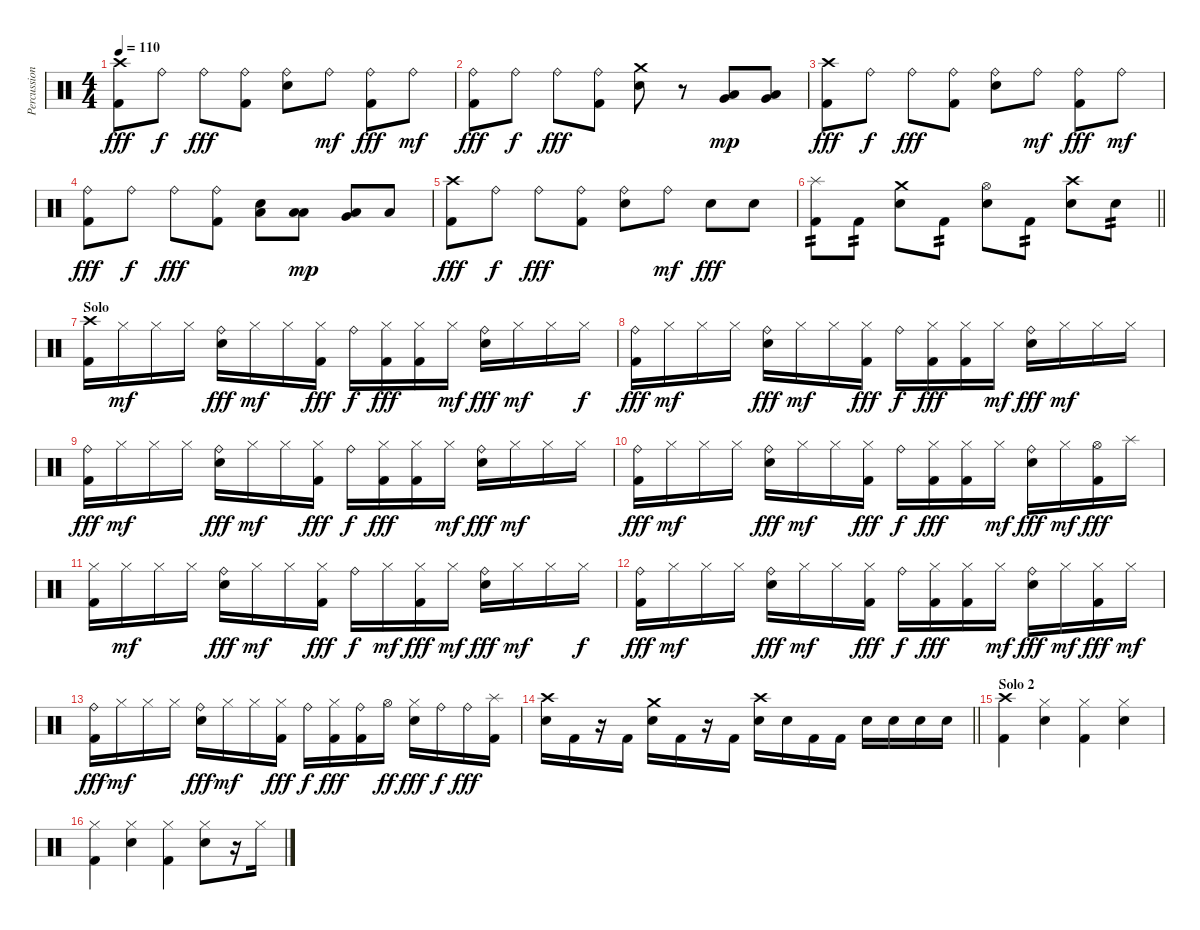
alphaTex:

\track ("Percussion" "Percussion") {instrument percussion}
\staff {score}
\articulation defaults
\ts (4 4)
\tempo 110
\clef neutral
\ks c
("Crash high (hit)" "Kick (hit) 2").8{dy fff} "Ride (bell)".8{dy f} "Ride (bell)".8{dy fff} ("Ride (bell)" "Kick (hit) 2").8 ("Ride (bell)" "Electric Snare (hit)").8 "Ride (bell)".8{dy mf} ("Ride (bell)" "Kick (hit) 2").8{dy fff} "Ride (bell)".8{dy mf} |
("Ride (bell)" "Kick (hit) 2").8{dy fff} "Ride (bell)".8{dy f} "Ride (bell)".8{dy fff} ("Ride (bell)" "Kick (hit) 2").8 ("Crash medium (hit)" "Electric Snare (hit)").8 r.8 ("Low Floor Tom (hit)" "Very Low Tom (hit)").8{dy mp} ("Low Floor Tom (hit)" "Very Low Tom (hit)").8 |
("Crash high (hit)" "Kick (hit) 2").8{dy fff} "Ride (bell)".8{dy f} "Ride (bell)".8{dy fff} ("Ride (bell)" "Kick (hit) 2").8 ("Ride (bell)" "Electric Snare (hit)").8 "Ride (bell)".8{dy mf} ("Ride (bell)" "Kick (hit) 2").8{dy fff} "Ride (bell)".8{dy mf} |
("Ride (bell)" "Kick (hit) 2").8{dy fff} "Ride (bell)".8{dy f} "Ride (bell)".8{dy fff} ("Ride (bell)" "Kick (hit) 2").8 ("Low Floor Tom (hit)" "Electric Snare (hit)").8 ("Low Floor Tom (hit)" "Low Tom (hit)").8{dy mp} ("Low Floor Tom (hit)" "Very Low Tom (hit)").8 "Low Floor Tom (hit)".8 |
("Crash high (hit)" "Kick (hit) 2").8{dy fff} "Ride (bell)".8{dy f} "Ride (bell)".8{dy fff} ("Ride (bell)" "Kick (hit) 2").8 ("Ride (bell)" "Electric Snare (hit)").8 "Ride (bell)".8{dy mf} "Electric Snare (hit)".8{dy fff} "Electric Snare (hit)".8 |
\barLineRight lightlight
("Splash (hit)" "Kick (hit) 2").8{tp 2} "Kick (hit) 2".8{tp 2} ("Crash medium (hit)" "Electric Snare (hit)").8 "Kick (hit) 2".8{tp 2} ("Hi-Hat (open)" "Electric Snare (hit)").8 "Kick (hit) 2".8{tp 2} ("Crash high (hit)" "Electric Snare (hit)").8 "Electric Snare (hit)".8{tp 2} |
\section ("" "Solo")
("Crash high (hit)" "Kick (hit) 2").16 "Hi-Hat (closed)".16{dy mf} "Hi-Hat (closed)".16 "Hi-Hat (closed)".16 ("Ride (bell)" "Electric Snare (hit)").16{dy fff} "Hi-Hat (closed)".16{dy mf} "Hi-Hat (closed)".16 ("Hi-Hat (closed)" "Kick (hit) 2").16{dy fff} "Ride (bell)".16{dy f} ("Hi-Hat (closed)" "Kick (hit) 2").16{dy fff} ("Hi-Hat (closed)" "Kick (hit) 2").16 "Hi-Hat (closed)".16{dy mf} ("Ride (bell)" "Electric Snare (hit)").16{dy fff} "Hi-Hat (closed)".16{dy mf} "Hi-Hat (closed)".16 "Hi-Hat (closed)".16{dy f} |
("Ride (bell)" "Kick (hit) 2").16{dy fff} "Hi-Hat (closed)".16{dy mf} "Hi-Hat (closed)".16 "Hi-Hat (closed)".16 ("Ride (bell)" "Electric Snare (hit)").16{dy fff} "Hi-Hat (closed)".16{dy mf} "Hi-Hat (closed)".16 ("Hi-Hat (closed)" "Kick (hit) 2").16{dy fff} "Ride (bell)".16{dy f} ("Hi-Hat (closed)" "Kick (hit) 2").16{dy fff} ("Hi-Hat (closed)" "Kick (hit) 2").16 "Hi-Hat (closed)".16{dy mf} ("Ride (bell)" "Electric Snare (hit)").16{dy fff} "Hi-Hat (closed)".16{dy mf} "Hi-Hat (closed)".16 "Hi-Hat (closed)".16 |
("Ride (bell)" "Kick (hit) 2").16{dy fff} "Hi-Hat (closed)".16{dy mf} "Hi-Hat (closed)".16 "Hi-Hat (closed)".16 ("Ride (bell)" "Electric Snare (hit)").16{dy fff} "Hi-Hat (closed)".16{dy mf} "Hi-Hat (closed)".16 ("Hi-Hat (closed)" "Kick (hit) 2").16{dy fff} "Ride (bell)".16{dy f} ("Hi-Hat (closed)" "Kick (hit) 2").16{dy fff} ("Hi-Hat (closed)" "Kick (hit) 2").16 "Hi-Hat (closed)".16{dy mf} ("Ride (bell)" "Electric Snare (hit)").16{dy fff} "Hi-Hat (closed)".16{dy mf} "Hi-Hat (closed)".16 "Hi-Hat (closed)".16 |
("Ride (bell)" "Kick (hit) 2").16{dy fff} "Hi-Hat (closed)".16{dy mf} "Hi-Hat (closed)".16 "Hi-Hat (closed)".16 ("Ride (bell)" "Electric Snare (hit)").16{dy fff} "Hi-Hat (closed)".16{dy mf} "Hi-Hat (closed)".16 ("Hi-Hat (closed)" "Kick (hit) 2").16{dy fff} "Ride (bell)".16{dy f} ("Hi-Hat (closed)" "Kick (hit) 2").16{dy fff} ("Hi-Hat (closed)" "Kick (hit) 2").16 "Hi-Hat (closed)".16{dy mf} ("Ride (bell)" "Electric Snare (hit)").16{dy fff} "Hi-Hat (closed)".16{dy mf} ("Hi-Hat (open)" "Kick (hit) 2").16{dy fff} "Splash (hit)".16 |
("Hi-Hat (closed)" "Kick (hit) 2").16 "Hi-Hat (closed)".16{dy mf} "Hi-Hat (closed)".16 "Hi-Hat (closed)".16 ("Ride (bell)" "Electric Snare (hit)").16{dy fff} "Hi-Hat (closed)".16{dy mf} "Hi-Hat (closed)".16 ("Hi-Hat (closed)" "Kick (hit) 2").16{dy fff} "Ride (bell)".16{dy f} "Hi-Hat (closed)".16{dy mf} ("Hi-Hat (closed)" "Kick (hit) 2").16{dy fff} "Hi-Hat (closed)".16{dy mf} ("Ride (bell)" "Electric Snare (hit)").16{dy fff} "Hi-Hat (closed)".16{dy mf} "Hi-Hat (closed)".16 "Hi-Hat (closed)".16{dy f} |
("Ride (bell)" "Kick (hit) 2").16{dy fff} "Hi-Hat (closed)".16{dy mf} "Hi-Hat (closed)".16 "Hi-Hat (closed)".16 ("Ride (bell)" "Electric Snare (hit)").16{dy fff} "Hi-Hat (closed)".16{dy mf} "Hi-Hat (closed)".16 ("Hi-Hat (closed)" "Kick (hit) 2").16{dy fff} "Ride (bell)".16{dy f} ("Hi-Hat (closed)" "Kick (hit) 2").16{dy fff} ("Hi-Hat (closed)" "Kick (hit) 2").16 "Hi-Hat (closed)".16{dy mf} ("Ride (bell)" "Electric Snare (hit)").16{dy fff} "Hi-Hat (closed)".16{dy mf} ("Hi-Hat (closed)" "Kick (hit) 2").16{dy fff} "Hi-Hat (closed)".16{dy mf} |
("Ride (bell)" "Kick (hit) 2").16{dy fff} "Hi-Hat (closed)".16{dy mf} "Hi-Hat (closed)".16 "Hi-Hat (closed)".16 ("Ride (bell)" "Electric Snare (hit)").16{dy fff} "Hi-Hat (closed)".16{dy mf} "Hi-Hat (closed)".16 ("Hi-Hat (closed)" "Kick (hit) 2").16{dy fff} "Ride (bell)".16{dy f} ("Hi-Hat (closed)" "Kick (hit) 2").16{dy fff} ("Ride (bell)" "Kick (hit) 2").16 "Hi-Hat (open)".16{dy ff} ("Hi-Hat (closed)" "Electric Snare (hit)").16{dy fff} "Ride (bell)".16{dy f} "Ride (bell)".16{dy fff} ("Splash (hit)" "Kick (hit) 2").16 |
\barLineRight lightlight
("Crash high (hit)" "Electric Snare (hit)").16 "Kick (hit) 2".16 r.16 "Kick (hit) 2".16 ("Crash medium (hit)" "Electric Snare (hit)").16 "Kick (hit) 2".16 r.16 "Kick (hit) 2".16 ("Crash high (hit)" "Electric Snare (hit)").16 "Electric Snare (hit)".16 "Kick (hit) 2".16 "Kick (hit) 2".16 "Electric Snare (hit)".16 "Electric Snare (hit)".16 "Electric Snare (hit)".16 "Electric Snare (hit)".16 |
\section ("" "Solo 2")
("Crash high (hit)" "Kick (hit) 2").4 ("Hi-Hat (closed)" "Electric Snare (hit)").4 ("Hi-Hat (closed)" "Kick (hit) 2").4 ("Hi-Hat (closed)" "Electric Snare (hit)").4 |
("Hi-Hat (closed)" "Kick (hit) 2").4 ("Hi-Hat (closed)" "Electric Snare (hit)").4 ("Hi-Hat (closed)" "Kick (hit) 2").4 ("Hi-Hat (closed)" "Electric Snare (hit)").8 r.16 "Hi-Hat (closed)".16
